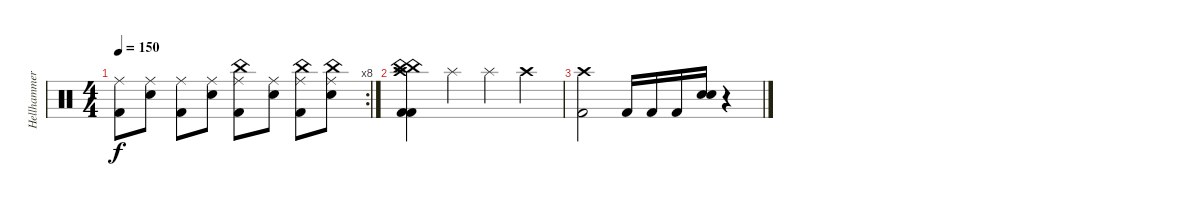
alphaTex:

\track ("Hellhammer" "Hellhammer") {instrument percussion}
\staff {score}
\articulation defaults
\rc 8
\ts (4 4)
\tempo 150
\clef neutral
\ks c
("Ride (middle)" "Kick (hit) 2").8{dy f} ("Ride (middle)" "Electric Snare (hit)").8 ("Ride (middle)" "Kick (hit) 2").8 ("Ride (middle)" "Electric Snare (hit)").8 ("China (hit)" "Ride (middle)" "Kick (hit) 2").8 ("Ride (middle)" "Electric Snare (hit)").8 ("China (hit)" "Ride (middle)" "Kick (hit) 2").8 ("China (hit)" "Ride (middle)" "Electric Snare (hit)").8 |
("China (hit)" "Crash high (hit)" "China (hit)" "Kick (hit) 2" "Kick (hit) 2").4 "Splash (hit)".4 "Splash (hit)".4 "Crash high (hit)".4 |
("Crash high (hit)" "Kick (hit) 2").2 "Kick (hit) 2".16 "Kick (hit) 2".16 "Kick (hit) 2".16 ("Electric Snare (hit)" "Electric Snare (hit)").16 r.4
